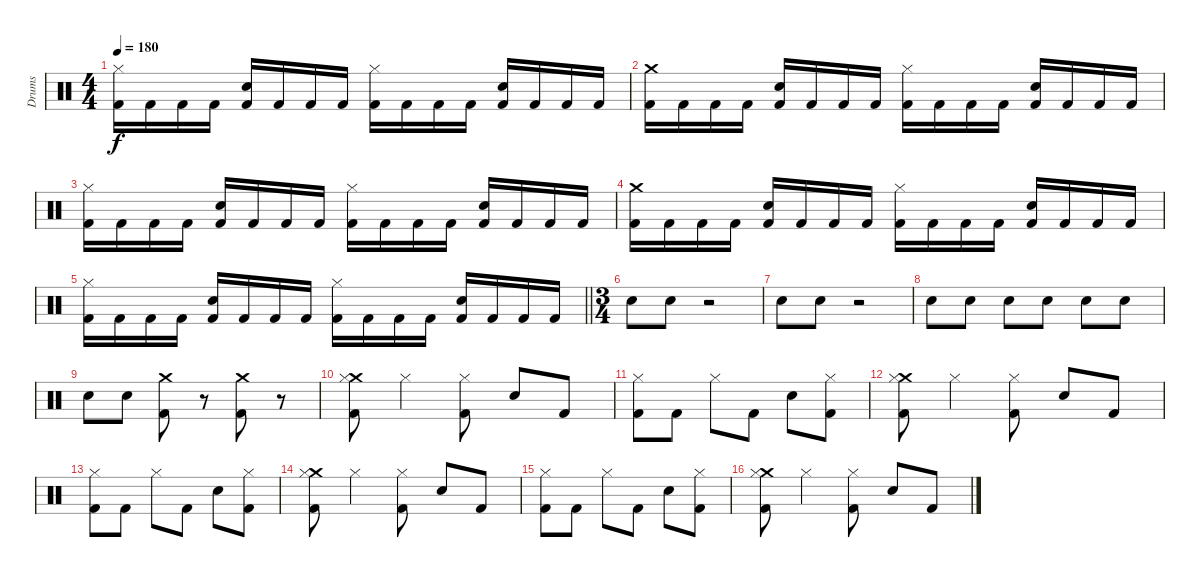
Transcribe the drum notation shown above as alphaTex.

\track ("Drums" "Drums") {instrument percussion}
\staff {score}
\articulation defaults
\ts (4 4)
\tempo 180
\clef neutral
\ks c
("Hi-Hat (closed)" "Kick (hit) 2").16{dy f} "Kick (hit) 2".16 "Kick (hit) 2".16 "Kick (hit) 2".16 ("Snare (hit) 2" "Kick (hit) 2").16 "Kick (hit) 2".16 "Kick (hit) 2".16 "Kick (hit) 2".16 ("Hi-Hat (closed)" "Kick (hit) 2").16 "Kick (hit) 2".16 "Kick (hit) 2".16 "Kick (hit) 2".16 ("Snare (hit) 2" "Kick (hit) 2").16 "Kick (hit) 2".16 "Kick (hit) 2".16 "Kick (hit) 2".16 |
("Crash medium (hit)" "Kick (hit) 2").16 "Kick (hit) 2".16 "Kick (hit) 2".16 "Kick (hit) 2".16 ("Snare (hit) 2" "Kick (hit) 2").16 "Kick (hit) 2".16 "Kick (hit) 2".16 "Kick (hit) 2".16 ("Hi-Hat (closed)" "Kick (hit) 2").16 "Kick (hit) 2".16 "Kick (hit) 2".16 "Kick (hit) 2".16 ("Snare (hit) 2" "Kick (hit) 2").16 "Kick (hit) 2".16 "Kick (hit) 2".16 "Kick (hit) 2".16 |
("Hi-Hat (closed)" "Kick (hit) 2").16 "Kick (hit) 2".16 "Kick (hit) 2".16 "Kick (hit) 2".16 ("Snare (hit) 2" "Kick (hit) 2").16 "Kick (hit) 2".16 "Kick (hit) 2".16 "Kick (hit) 2".16 ("Hi-Hat (closed)" "Kick (hit) 2").16 "Kick (hit) 2".16 "Kick (hit) 2".16 "Kick (hit) 2".16 ("Snare (hit) 2" "Kick (hit) 2").16 "Kick (hit) 2".16 "Kick (hit) 2".16 "Kick (hit) 2".16 |
("Crash medium (hit)" "Kick (hit) 2").16 "Kick (hit) 2".16 "Kick (hit) 2".16 "Kick (hit) 2".16 ("Snare (hit) 2" "Kick (hit) 2").16 "Kick (hit) 2".16 "Kick (hit) 2".16 "Kick (hit) 2".16 ("Hi-Hat (closed)" "Kick (hit) 2").16 "Kick (hit) 2".16 "Kick (hit) 2".16 "Kick (hit) 2".16 ("Snare (hit) 2" "Kick (hit) 2").16 "Kick (hit) 2".16 "Kick (hit) 2".16 "Kick (hit) 2".16 |
\barLineRight lightlight
("Hi-Hat (closed)" "Kick (hit) 2").16 "Kick (hit) 2".16 "Kick (hit) 2".16 "Kick (hit) 2".16 ("Snare (hit) 2" "Kick (hit) 2").16 "Kick (hit) 2".16 "Kick (hit) 2".16 "Kick (hit) 2".16 ("Hi-Hat (closed)" "Kick (hit) 2").16 "Kick (hit) 2".16 "Kick (hit) 2".16 "Kick (hit) 2".16 ("Snare (hit) 2" "Kick (hit) 2").16 "Kick (hit) 2".16 "Kick (hit) 2".16 "Kick (hit) 2".16 |
\ts (3 4)
"Snare (hit) 2".8 "Snare (hit) 2".8 r.2 |
"Snare (hit) 2".8 "Snare (hit) 2".8 r.2 |
"Snare (hit) 2".8 "Snare (hit) 2".8 "Snare (hit) 2".8 "Snare (hit) 2".8 "Snare (hit) 2".8 "Snare (hit) 2".8 |
"Snare (hit) 2".8 "Snare (hit) 2".8 ("Crash medium (hit)" "Kick (hit) 2").8 r.8 ("Crash medium (hit)" "Kick (hit) 2").8 r.8 |
("Crash medium (hit)" "Hi-Hat (closed)" "Kick (hit) 2").8 "Hi-Hat (closed)".4 ("Hi-Hat (closed)" "Kick (hit) 2").8 "Snare (hit) 2".8 "Kick (hit) 2".8 |
("Hi-Hat (closed)" "Kick (hit) 2").8 "Kick (hit) 2".8 "Hi-Hat (closed)".8 "Kick (hit) 2".8 "Snare (hit) 2".8 ("Hi-Hat (closed)" "Kick (hit) 2").8 |
("Crash medium (hit)" "Hi-Hat (closed)" "Kick (hit) 2").8 "Hi-Hat (closed)".4 ("Hi-Hat (closed)" "Kick (hit) 2").8 "Snare (hit) 2".8 "Kick (hit) 2".8 |
("Hi-Hat (closed)" "Kick (hit) 2").8 "Kick (hit) 2".8 "Hi-Hat (closed)".8 "Kick (hit) 2".8 "Snare (hit) 2".8 ("Hi-Hat (closed)" "Kick (hit) 2").8 |
("Crash medium (hit)" "Hi-Hat (closed)" "Kick (hit) 2").8 "Hi-Hat (closed)".4 ("Hi-Hat (closed)" "Kick (hit) 2").8 "Snare (hit) 2".8 "Kick (hit) 2".8 |
("Hi-Hat (closed)" "Kick (hit) 2").8 "Kick (hit) 2".8 "Hi-Hat (closed)".8 "Kick (hit) 2".8 "Snare (hit) 2".8 ("Hi-Hat (closed)" "Kick (hit) 2").8 |
("Crash medium (hit)" "Hi-Hat (closed)" "Kick (hit) 2").8 "Hi-Hat (closed)".4 ("Hi-Hat (closed)" "Kick (hit) 2").8 "Snare (hit) 2".8 "Kick (hit) 2".8
